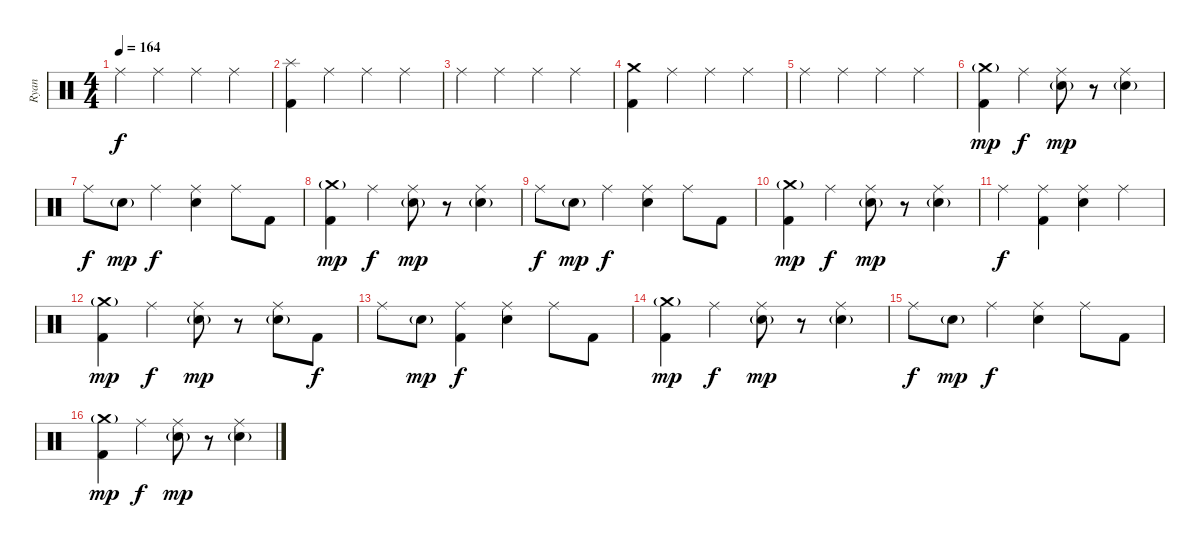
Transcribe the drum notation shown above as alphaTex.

\track ("Ryan" "Ryan") {instrument percussion}
\staff {score}
\articulation defaults
\ts (4 4)
\tempo 164
\clef neutral
\ks c "Ride (middle)".4{dy f} "Ride (middle)".4 "Ride (middle)".4 "Ride (middle)".4
|
("Splash (hit)" "Kick (hit) 2").4 "Ride (middle)".4 "Ride (middle)".4 "Ride (middle)".4 |
"Ride (middle)".4 "Ride (middle)".4 "Ride (middle)".4 "Ride (middle)".4 |
("Crash medium (hit)" "Kick (hit) 2").4 "Ride (middle)".4 "Ride (middle)".4 "Ride (middle)".4 |
"Ride (middle)".4 "Ride (middle)".4 "Ride (middle)".4 "Ride (middle)".4 |
("Crash medium (hit)"{g} "Kick (hit) 2").4{dy mp} "Ride (middle)".4{dy f} ("Ride (middle)" "Electric Snare (hit)"{g}).8{dy mp} r.8 ("Ride (middle)" "Electric Snare (hit)"{g}).4 |
"Ride (middle)".8{dy f} "Electric Snare (hit)"{g}.8{dy mp} "Ride (middle)".4{dy f} ("Ride (middle)" "Electric Snare (hit)").4 "Ride (middle)".8 "Kick (hit) 2".8 |
("Crash medium (hit)"{g} "Kick (hit) 2").4{dy mp} "Ride (middle)".4{dy f} ("Ride (middle)" "Electric Snare (hit)"{g}).8{dy mp} r.8 ("Ride (middle)" "Electric Snare (hit)"{g}).4 |
"Ride (middle)".8{dy f} "Snare (hit) 2"{g}.8{dy mp} "Ride (middle)".4{dy f} ("Ride (middle)" "Electric Snare (hit)").4 "Ride (middle)".8 "Kick (hit) 2".8 |
("Crash medium (hit)"{g} "Kick (hit) 2").4{dy mp} "Ride (middle)".4{dy f} ("Ride (middle)" "Electric Snare (hit)"{g}).8{dy mp} r.8 ("Ride (middle)" "Electric Snare (hit)"{g}).4 |
"Ride (middle)".4{dy f} ("Ride (middle)" "Kick (hit) 2").4 ("Ride (middle)" "Electric Snare (hit)").4 "Ride (middle)".4 |
("Crash medium (hit)"{g} "Kick (hit) 2").4{dy mp} "Ride (middle)".4{dy f} ("Ride (middle)" "Electric Snare (hit)"{g}).8{dy mp} r.8 ("Ride (middle)" "Electric Snare (hit)"{g}).8 "Kick (hit) 2".8{dy f} |
"Ride (middle)".8 "Electric Snare (hit)"{g}.8{dy mp} ("Ride (middle)" "Kick (hit) 2").4{dy f} ("Ride (middle)" "Electric Snare (hit)").4 "Ride (middle)".8 "Kick (hit) 2".8 |
("Crash medium (hit)"{g} "Kick (hit) 2").4{dy mp} "Ride (middle)".4{dy f} ("Ride (middle)" "Electric Snare (hit)"{g}).8{dy mp} r.8 ("Ride (middle)" "Electric Snare (hit)"{g}).4 |
"Ride (middle)".8{dy f} "Electric Snare (hit)"{g}.8{dy mp} "Ride (middle)".4{dy f} ("Ride (middle)" "Electric Snare (hit)").4 "Ride (middle)".8 "Kick (hit) 2".8 |
("Crash medium (hit)"{g} "Kick (hit) 2").4{dy mp} "Ride (middle)".4{dy f} ("Ride (middle)" "Electric Snare (hit)"{g}).8{dy mp} r.8 ("Ride (middle)" "Electric Snare (hit)"{g}).4
